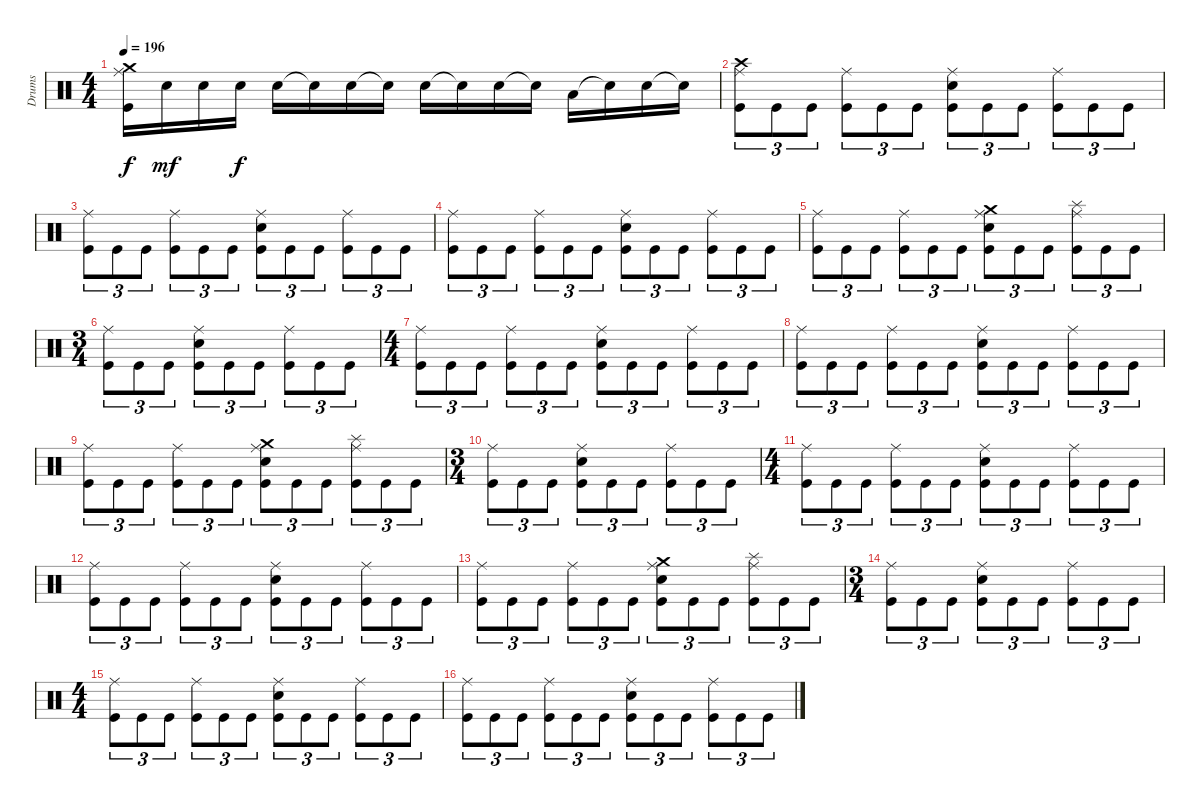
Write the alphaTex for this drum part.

\track ("Drums" "Drums") {instrument percussion}
\staff {score}
\articulation defaults
\ts (4 4)
\tempo 196
\clef neutral
\ks c
("Crash medium (hit)" "Ride (middle)" "Kick (hit)").16{dy f} "Electric Snare (hit)".16{dy mf} "Electric Snare (hit)".16 "Electric Snare (hit)".16{dy f} "Electric Snare (hit)".16 "Electric Snare (hit)"{t}.16 "Electric Snare (hit)".16 "Snare (hit)"{t}.16 "Electric Snare (hit)".16 "Snare (hit)"{t}.16 "Electric Snare (hit)".16 "Snare (hit)"{t}.16 "Low Tom (hit)".16 "Snare (hit)"{t}.16 "Electric Snare (hit)".16 "Snare (hit)"{t}.16 |
("Crash high (hit)" "Ride (middle)" "Kick (hit)").8{tu (3 2)} "Kick (hit)".8{tu (3 2)} "Kick (hit)".8{tu (3 2)} ("Ride (middle)" "Kick (hit)").8{tu (3 2)} "Kick (hit)".8{tu (3 2)} "Kick (hit)".8{tu (3 2)} ("Ride (middle)" "Electric Snare (hit)" "Kick (hit)").8{tu (3 2)} "Kick (hit)".8{tu (3 2)} "Kick (hit)".8{tu (3 2)} ("Ride (middle)" "Kick (hit)").8{tu (3 2)} "Kick (hit)".8{tu (3 2)} "Kick (hit)".8{tu (3 2)} |
("Ride (middle)" "Kick (hit)").8{tu (3 2)} "Kick (hit)".8{tu (3 2)} "Kick (hit)".8{tu (3 2)} ("Ride (middle)" "Kick (hit)").8{tu (3 2)} "Kick (hit)".8{tu (3 2)} "Kick (hit)".8{tu (3 2)} ("Ride (middle)" "Electric Snare (hit)" "Kick (hit)").8{tu (3 2)} "Kick (hit)".8{tu (3 2)} "Kick (hit)".8{tu (3 2)} ("Ride (middle)" "Kick (hit)").8{tu (3 2)} "Kick (hit)".8{tu (3 2)} "Kick (hit)".8{tu (3 2)} |
("Ride (middle)" "Kick (hit)").8{tu (3 2)} "Kick (hit)".8{tu (3 2)} "Kick (hit)".8{tu (3 2)} ("Ride (middle)" "Kick (hit)").8{tu (3 2)} "Kick (hit)".8{tu (3 2)} "Kick (hit)".8{tu (3 2)} ("Ride (middle)" "Electric Snare (hit)" "Kick (hit)").8{tu (3 2)} "Kick (hit)".8{tu (3 2)} "Kick (hit)".8{tu (3 2)} ("Ride (middle)" "Kick (hit)").8{tu (3 2)} "Kick (hit)".8{tu (3 2)} "Kick (hit)".8{tu (3 2)} |
("Ride (middle)" "Kick (hit)").8{tu (3 2)} "Kick (hit)".8{tu (3 2)} "Kick (hit)".8{tu (3 2)} ("Ride (middle)" "Kick (hit)").8{tu (3 2)} "Kick (hit)".8{tu (3 2)} "Kick (hit)".8{tu (3 2)} ("Crash medium (hit)" "Ride (middle)" "Electric Snare (hit)" "Kick (hit)").8{tu (3 2)} "Kick (hit)".8{tu (3 2)} "Kick (hit)".8{tu (3 2)} ("Splash (hit)" "Ride (middle)" "Kick (hit)").8{tu (3 2)} "Kick (hit)".8{tu (3 2)} "Kick (hit)".8{tu (3 2)} |
\ts (3 4)
("Ride (middle)" "Kick (hit)").8{tu (3 2)} "Kick (hit)".8{tu (3 2)} "Kick (hit)".8{tu (3 2)} ("Ride (middle)" "Electric Snare (hit)" "Kick (hit)").8{tu (3 2)} "Kick (hit)".8{tu (3 2)} "Kick (hit)".8{tu (3 2)} ("Ride (middle)" "Kick (hit)").8{tu (3 2)} "Kick (hit)".8{tu (3 2)} "Kick (hit)".8{tu (3 2)} |
\ts (4 4)
("Ride (middle)" "Kick (hit)").8{tu (3 2)} "Kick (hit)".8{tu (3 2)} "Kick (hit)".8{tu (3 2)} ("Ride (middle)" "Kick (hit)").8{tu (3 2)} "Kick (hit)".8{tu (3 2)} "Kick (hit)".8{tu (3 2)} ("Ride (middle)" "Electric Snare (hit)" "Kick (hit)").8{tu (3 2)} "Kick (hit)".8{tu (3 2)} "Kick (hit)".8{tu (3 2)} ("Ride (middle)" "Kick (hit)").8{tu (3 2)} "Kick (hit)".8{tu (3 2)} "Kick (hit)".8{tu (3 2)} |
("Ride (middle)" "Kick (hit)").8{tu (3 2)} "Kick (hit)".8{tu (3 2)} "Kick (hit)".8{tu (3 2)} ("Ride (middle)" "Kick (hit)").8{tu (3 2)} "Kick (hit)".8{tu (3 2)} "Kick (hit)".8{tu (3 2)} ("Ride (middle)" "Electric Snare (hit)" "Kick (hit)").8{tu (3 2)} "Kick (hit)".8{tu (3 2)} "Kick (hit)".8{tu (3 2)} ("Ride (middle)" "Kick (hit)").8{tu (3 2)} "Kick (hit)".8{tu (3 2)} "Kick (hit)".8{tu (3 2)} |
("Ride (middle)" "Kick (hit)").8{tu (3 2)} "Kick (hit)".8{tu (3 2)} "Kick (hit)".8{tu (3 2)} ("Ride (middle)" "Kick (hit)").8{tu (3 2)} "Kick (hit)".8{tu (3 2)} "Kick (hit)".8{tu (3 2)} ("Crash medium (hit)" "Ride (middle)" "Electric Snare (hit)" "Kick (hit)").8{tu (3 2)} "Kick (hit)".8{tu (3 2)} "Kick (hit)".8{tu (3 2)} ("Splash (hit)" "Ride (middle)" "Kick (hit)").8{tu (3 2)} "Kick (hit)".8{tu (3 2)} "Kick (hit)".8{tu (3 2)} |
\ts (3 4)
("Ride (middle)" "Kick (hit)").8{tu (3 2)} "Kick (hit)".8{tu (3 2)} "Kick (hit)".8{tu (3 2)} ("Ride (middle)" "Electric Snare (hit)" "Kick (hit)").8{tu (3 2)} "Kick (hit)".8{tu (3 2)} "Kick (hit)".8{tu (3 2)} ("Ride (middle)" "Kick (hit)").8{tu (3 2)} "Kick (hit)".8{tu (3 2)} "Kick (hit)".8{tu (3 2)} |
\ts (4 4)
("Ride (middle)" "Kick (hit)").8{tu (3 2)} "Kick (hit)".8{tu (3 2)} "Kick (hit)".8{tu (3 2)} ("Ride (middle)" "Kick (hit)").8{tu (3 2)} "Kick (hit)".8{tu (3 2)} "Kick (hit)".8{tu (3 2)} ("Ride (middle)" "Electric Snare (hit)" "Kick (hit)").8{tu (3 2)} "Kick (hit)".8{tu (3 2)} "Kick (hit)".8{tu (3 2)} ("Ride (middle)" "Kick (hit)").8{tu (3 2)} "Kick (hit)".8{tu (3 2)} "Kick (hit)".8{tu (3 2)} |
("Ride (middle)" "Kick (hit)").8{tu (3 2)} "Kick (hit)".8{tu (3 2)} "Kick (hit)".8{tu (3 2)} ("Ride (middle)" "Kick (hit)").8{tu (3 2)} "Kick (hit)".8{tu (3 2)} "Kick (hit)".8{tu (3 2)} ("Ride (middle)" "Electric Snare (hit)" "Kick (hit)").8{tu (3 2)} "Kick (hit)".8{tu (3 2)} "Kick (hit)".8{tu (3 2)} ("Ride (middle)" "Kick (hit)").8{tu (3 2)} "Kick (hit)".8{tu (3 2)} "Kick (hit)".8{tu (3 2)} |
("Ride (middle)" "Kick (hit)").8{tu (3 2)} "Kick (hit)".8{tu (3 2)} "Kick (hit)".8{tu (3 2)} ("Ride (middle)" "Kick (hit)").8{tu (3 2)} "Kick (hit)".8{tu (3 2)} "Kick (hit)".8{tu (3 2)} ("Crash medium (hit)" "Ride (middle)" "Electric Snare (hit)" "Kick (hit)").8{tu (3 2)} "Kick (hit)".8{tu (3 2)} "Kick (hit)".8{tu (3 2)} ("Splash (hit)" "Ride (middle)" "Kick (hit)").8{tu (3 2)} "Kick (hit)".8{tu (3 2)} "Kick (hit)".8{tu (3 2)} |
\ts (3 4)
("Ride (middle)" "Kick (hit)").8{tu (3 2)} "Kick (hit)".8{tu (3 2)} "Kick (hit)".8{tu (3 2)} ("Ride (middle)" "Electric Snare (hit)" "Kick (hit)").8{tu (3 2)} "Kick (hit)".8{tu (3 2)} "Kick (hit)".8{tu (3 2)} ("Ride (middle)" "Kick (hit)").8{tu (3 2)} "Kick (hit)".8{tu (3 2)} "Kick (hit)".8{tu (3 2)} |
\ts (4 4)
("Ride (middle)" "Kick (hit)").8{tu (3 2)} "Kick (hit)".8{tu (3 2)} "Kick (hit)".8{tu (3 2)} ("Ride (middle)" "Kick (hit)").8{tu (3 2)} "Kick (hit)".8{tu (3 2)} "Kick (hit)".8{tu (3 2)} ("Ride (middle)" "Electric Snare (hit)" "Kick (hit)").8{tu (3 2)} "Kick (hit)".8{tu (3 2)} "Kick (hit)".8{tu (3 2)} ("Ride (middle)" "Kick (hit)").8{tu (3 2)} "Kick (hit)".8{tu (3 2)} "Kick (hit)".8{tu (3 2)} |
("Ride (middle)" "Kick (hit)").8{tu (3 2)} "Kick (hit)".8{tu (3 2)} "Kick (hit)".8{tu (3 2)} ("Ride (middle)" "Kick (hit)").8{tu (3 2)} "Kick (hit)".8{tu (3 2)} "Kick (hit)".8{tu (3 2)} ("Ride (middle)" "Electric Snare (hit)" "Kick (hit)").8{tu (3 2)} "Kick (hit)".8{tu (3 2)} "Kick (hit)".8{tu (3 2)} ("Ride (middle)" "Kick (hit)").8{tu (3 2)} "Kick (hit)".8{tu (3 2)} "Kick (hit)".8{tu (3 2)}
